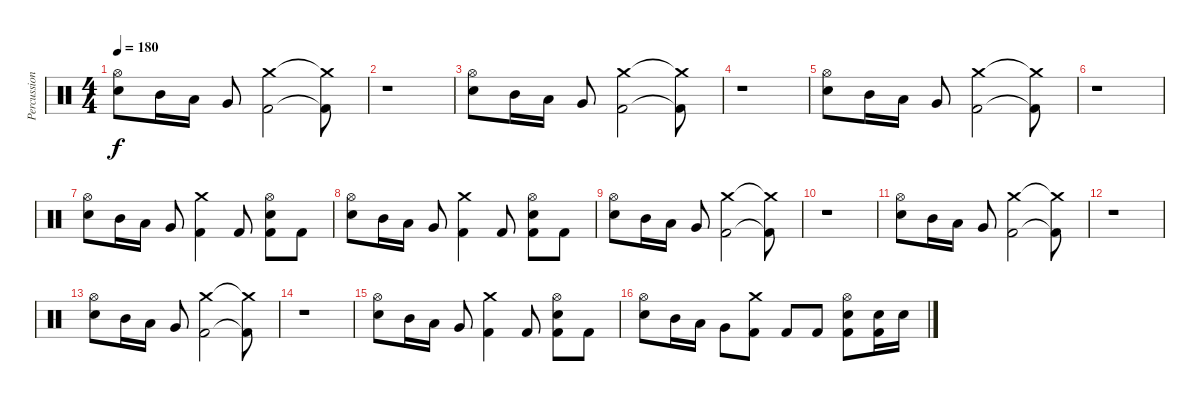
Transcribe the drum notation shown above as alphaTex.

\track ("Percussion" "Percussion") {instrument percussion}
\staff {score}
\articulation defaults
\ts (4 4)
\tempo 180
\clef neutral
\ks c
("Hi-Hat (open)" "Snare (hit) 2").8{dy f} "Mid Tom (hit)".16 "Low Tom (hit)".16 "Very Low Tom (hit)".8 ("Crash medium (hit)" "Kick (hit) 2").2 ("Crash medium (hit)"{t} "Kick (hit) 2"{t}).8 |
r.1 |
("Hi-Hat (open)" "Snare (hit) 2").8 "Mid Tom (hit)".16 "Low Tom (hit)".16 "Very Low Tom (hit)".8 ("Crash medium (hit)" "Kick (hit) 2").2 ("Crash medium (hit)"{t} "Kick (hit) 2"{t}).8 |
r.1 |
("Hi-Hat (open)" "Snare (hit) 2").8 "Mid Tom (hit)".16 "Low Tom (hit)".16 "Very Low Tom (hit)".8 ("Crash medium (hit)" "Kick (hit) 2").2 ("Crash medium (hit)"{t} "Kick (hit) 2"{t}).8 |
r.1 |
("Hi-Hat (open)" "Snare (hit) 2").8 "Mid Tom (hit)".16 "Low Tom (hit)".16 "Very Low Tom (hit)".8 ("Crash medium (hit)" "Kick (hit) 2").4 "Kick (hit) 2".8 ("Kick (hit) 2" "Hi-Hat (open)" "Snare (hit) 2").8 "Kick (hit) 2".8 |
("Hi-Hat (open)" "Snare (hit) 2").8 "Mid Tom (hit)".16 "Low Tom (hit)".16 "Very Low Tom (hit)".8 ("Crash medium (hit)" "Kick (hit) 2").4 "Kick (hit) 2".8 ("Kick (hit) 2" "Hi-Hat (open)" "Snare (hit) 2").8 "Kick (hit) 2".8 |
("Hi-Hat (open)" "Snare (hit) 2").8 "Mid Tom (hit)".16 "Low Tom (hit)".16 "Very Low Tom (hit)".8 ("Crash medium (hit)" "Kick (hit) 2").2 ("Crash medium (hit)"{t} "Kick (hit) 2"{t}).8 |
r.1 |
("Hi-Hat (open)" "Snare (hit) 2").8 "Mid Tom (hit)".16 "Low Tom (hit)".16 "Very Low Tom (hit)".8 ("Crash medium (hit)" "Kick (hit) 2").2 ("Crash medium (hit)"{t} "Kick (hit) 2"{t}).8 |
r.1 |
("Hi-Hat (open)" "Snare (hit) 2").8 "Mid Tom (hit)".16 "Low Tom (hit)".16 "Very Low Tom (hit)".8 ("Crash medium (hit)" "Kick (hit) 2").2 ("Crash medium (hit)"{t} "Kick (hit) 2"{t}).8 |
r.1 |
("Hi-Hat (open)" "Snare (hit) 2").8 "Mid Tom (hit)".16 "Low Tom (hit)".16 "Very Low Tom (hit)".8 ("Crash medium (hit)" "Kick (hit) 2").4 "Kick (hit) 2".8 ("Kick (hit) 2" "Hi-Hat (open)" "Snare (hit) 2").8 "Kick (hit) 2".8 |
("Hi-Hat (open)" "Snare (hit) 2").8 "Mid Tom (hit)".16 "Low Tom (hit)".16 "Very Low Tom (hit)".8 ("Crash medium (hit)" "Kick (hit) 2").8 "Kick (hit) 2".8 "Kick (hit) 2".8 ("Kick (hit) 2" "Hi-Hat (open)" "Snare (hit) 2").8 ("Kick (hit) 2" "Snare (hit) 2").16 "Snare (hit) 2".16
